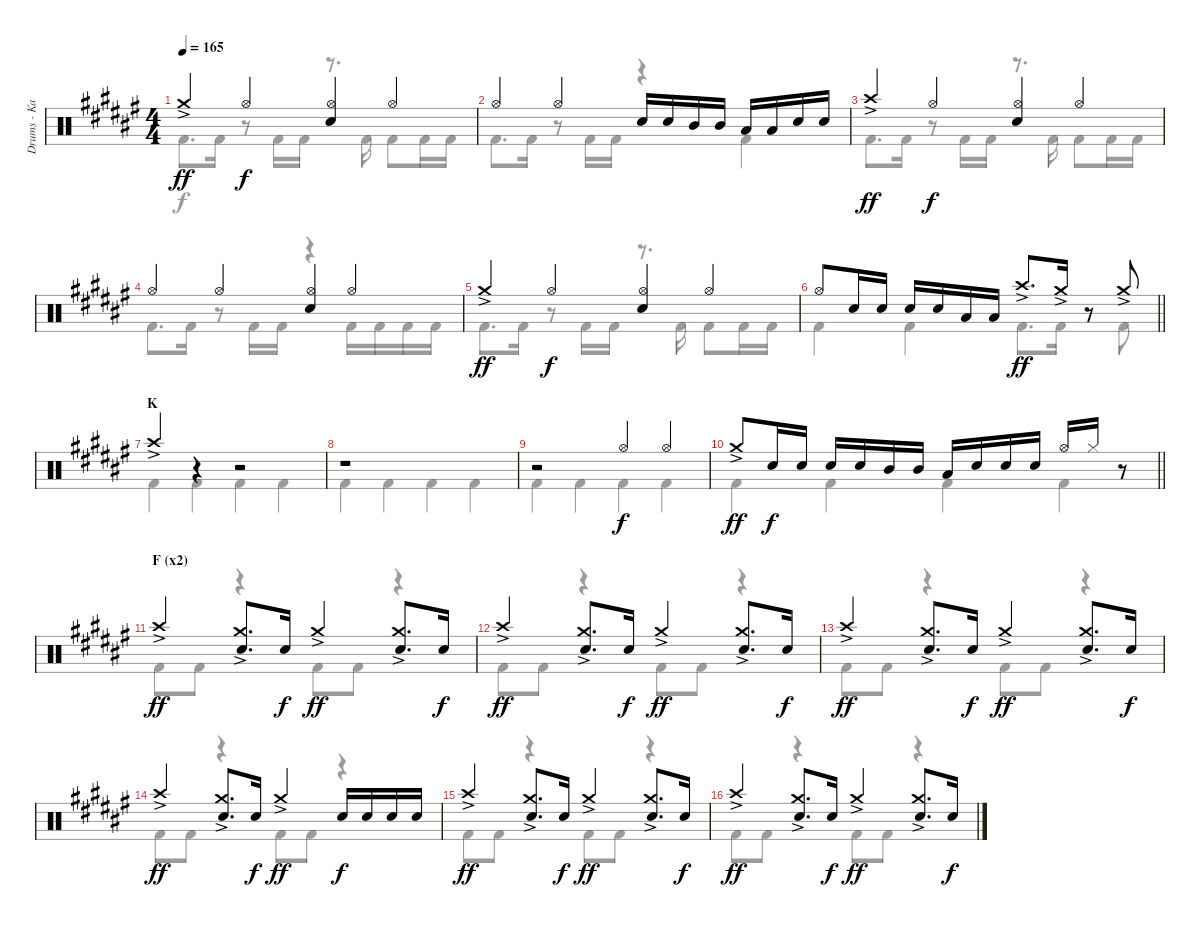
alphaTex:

\track ("Drums - Kai" "Drums - Ka") {instrument percussion}
\staff {score}
\articulation defaults
\voice
\ts (4 4)
\tempo 165
\clef neutral
\ks f# "Crash medium (hit)"{ac}.4{dy ff} "Hi-Hat (open)".4{dy f}
("Hi-Hat (open)" "Electric Snare (hit)").4 "Hi-Hat (open)".4 |
"Hi-Hat (open)".4 "Hi-Hat (open)".4 "Electric Snare (hit)".16 "Electric Snare (hit)".16 "Mid Tom (hit)".16 "Mid Tom (hit)".16 "Low Tom (hit)".16 "Low Tom (hit)".16 "Electric Snare (hit)".16 "Electric Snare (hit)".16 |
"Crash high (hit)"{ac}.4{dy ff} "Hi-Hat (open)".4{dy f} ("Hi-Hat (open)" "Electric Snare (hit)").4 "Hi-Hat (open)".4 |
"Hi-Hat (open)".4 "Hi-Hat (open)".4 ("Hi-Hat (open)" "Electric Snare (hit)").4 "Hi-Hat (open)".4 |
"Crash medium (hit)"{ac}.4{dy ff} "Hi-Hat (open)".4{dy f} ("Hi-Hat (open)" "Electric Snare (hit)").4 "Hi-Hat (open)".4 |
\barLineRight lightlight "Hi-Hat (open)".8 "Electric Snare (hit)".16 "Electric Snare (hit)".16 "Electric Snare (hit)".16 "Electric Snare (hit)".16 "Low Tom (hit)".16 "Low Tom (hit)".16 "Crash high (hit)"{ac}.8{d dy ff} "Crash medium (hit)"{ac}.16
r.8 "Crash medium (hit)"{ac}.8 |
\section ("" "K")
"Crash high (hit)"{ac}.4 r.4 r.2 |
r.1 |
r.2 "Hi-Hat (open)".4{dy f} "Hi-Hat (open)".4 |
\barLineRight lightlight "Crash medium (hit)"{ac}.8{dy ff} "Electric Snare (hit)".16{dy f} "Electric Snare (hit)".16 "Electric Snare (hit)".16 "Electric Snare (hit)".16 "Mid Tom (hit)".16 "Mid Tom (hit)".16 "Low Tom (hit)".16 "Electric Snare (hit)".16 "Electric Snare (hit)".16 "Electric Snare (hit)".16 "Hi-Hat (open)".16 "Hi-Hat (closed)".16
r.8 |
\section ("" "F (x2)")
"Crash high (hit)"{ac}.4{dy ff} ("Crash medium (hit)"{ac} "Electric Snare (hit)").8{d} "Electric Snare (hit)".16{dy f} "Crash medium (hit)"{ac}.4{dy ff} ("Crash medium (hit)"{ac} "Electric Snare (hit)").8{d} "Electric Snare (hit)".16{dy f} |
"Crash high (hit)"{ac}.4{dy ff} ("Crash medium (hit)"{ac} "Electric Snare (hit)").8{d} "Electric Snare (hit)".16{dy f} "Crash medium (hit)"{ac}.4{dy ff} ("Crash medium (hit)"{ac} "Electric Snare (hit)").8{d} "Electric Snare (hit)".16{dy f} |
"Crash high (hit)"{ac}.4{dy ff} ("Crash medium (hit)"{ac} "Electric Snare (hit)").8{d} "Electric Snare (hit)".16{dy f} "Crash medium (hit)"{ac}.4{dy ff} ("Crash medium (hit)"{ac} "Electric Snare (hit)").8{d} "Electric Snare (hit)".16{dy f} |
"Crash high (hit)"{ac}.4{dy ff} ("Crash medium (hit)"{ac} "Electric Snare (hit)").8{d} "Electric Snare (hit)".16{dy f} "Crash medium (hit)"{ac}.4{dy ff} "Electric Snare (hit)".16{dy f} "Electric Snare (hit)".16 "Electric Snare (hit)".16 "Electric Snare (hit)".16 |
"Crash high (hit)"{ac}.4{dy ff} ("Crash medium (hit)"{ac} "Electric Snare (hit)").8{d} "Electric Snare (hit)".16{dy f} "Crash medium (hit)"{ac}.4{dy ff} ("Crash medium (hit)"{ac} "Electric Snare (hit)").8{d} "Electric Snare (hit)".16{dy f} |
"Crash high (hit)"{ac}.4{dy ff} ("Crash medium (hit)"{ac} "Electric Snare (hit)").8{d} "Electric Snare (hit)".16{dy f} "Crash medium (hit)"{ac}.4{dy ff} ("Crash medium (hit)"{ac} "Electric Snare (hit)").8{d} "Electric Snare (hit)".16{dy f}
\voice
\clef neutral
\ottava regular
\simile none
\ks f# "Kick (hit) 2".8{d dy f} "Kick (hit) 2".16
r.8 "Kick (hit) 2".16 "Kick (hit) 2".16 r.8{d} "Kick (hit) 2".16 "Kick (hit) 2".8 "Kick (hit) 2".16 "Kick (hit) 2".16 |
"Kick (hit) 2".8{d} "Kick (hit) 2".16 r.8 "Kick (hit) 2".16 "Kick (hit) 2".16 r.4 "Kick (hit) 2".4 |
"Kick (hit) 2".8{d} "Kick (hit) 2".16 r.8 "Kick (hit) 2".16 "Kick (hit) 2".16 r.8{d} "Kick (hit) 2".16 "Kick (hit) 2".8 "Kick (hit) 2".16 "Kick (hit) 2".16 |
"Kick (hit) 2".8{d} "Kick (hit) 2".16 r.8 "Kick (hit) 2".16 "Kick (hit) 2".16 r.4 "Kick (hit) 2".16 "Kick (hit) 2".16 "Kick (hit) 2".16 "Kick (hit) 2".16 |
"Kick (hit) 2".8{d} "Kick (hit) 2".16 r.8 "Kick (hit) 2".16 "Kick (hit) 2".16 r.8{d} "Kick (hit) 2".16 "Kick (hit) 2".8 "Kick (hit) 2".16 "Kick (hit) 2".16 |
\barLineRight lightlight "Kick (hit) 2".4 "Kick (hit) 2".4 "Kick (hit) 2".8{d} "Kick (hit) 2".16
r.8 "Kick (hit) 2".8 |
"Kick (hit) 2".4 "Kick (hit) 2".4 "Kick (hit) 2".4 "Kick (hit) 2".4 |
"Kick (hit) 2".4 "Kick (hit) 2".4 "Kick (hit) 2".4 "Kick (hit) 2".4 |
"Kick (hit) 2".4 "Kick (hit) 2".4 "Kick (hit) 2".4 "Kick (hit) 2".4 |
\barLineRight lightlight "Kick (hit) 2".4 "Kick (hit) 2".4 "Kick (hit) 2".4 "Kick (hit) 2".4
|
"Kick (hit) 2".8 "Kick (hit) 2".8 r.4 "Kick (hit) 2".8 "Kick (hit) 2".8 r.4 |
"Kick (hit) 2".8 "Kick (hit) 2".8 r.4 "Kick (hit) 2".8 "Kick (hit) 2".8 r.4 |
"Kick (hit) 2".8 "Kick (hit) 2".8 r.4 "Kick (hit) 2".8 "Kick (hit) 2".8 r.4 |
"Kick (hit) 2".8 "Kick (hit) 2".8 r.4 "Kick (hit) 2".8 "Kick (hit) 2".8 r.4 |
"Kick (hit) 2".8 "Kick (hit) 2".8 r.4 "Kick (hit) 2".8 "Kick (hit) 2".8 r.4 |
"Kick (hit) 2".8 "Kick (hit) 2".8 r.4 "Kick (hit) 2".8 "Kick (hit) 2".8 r.4
